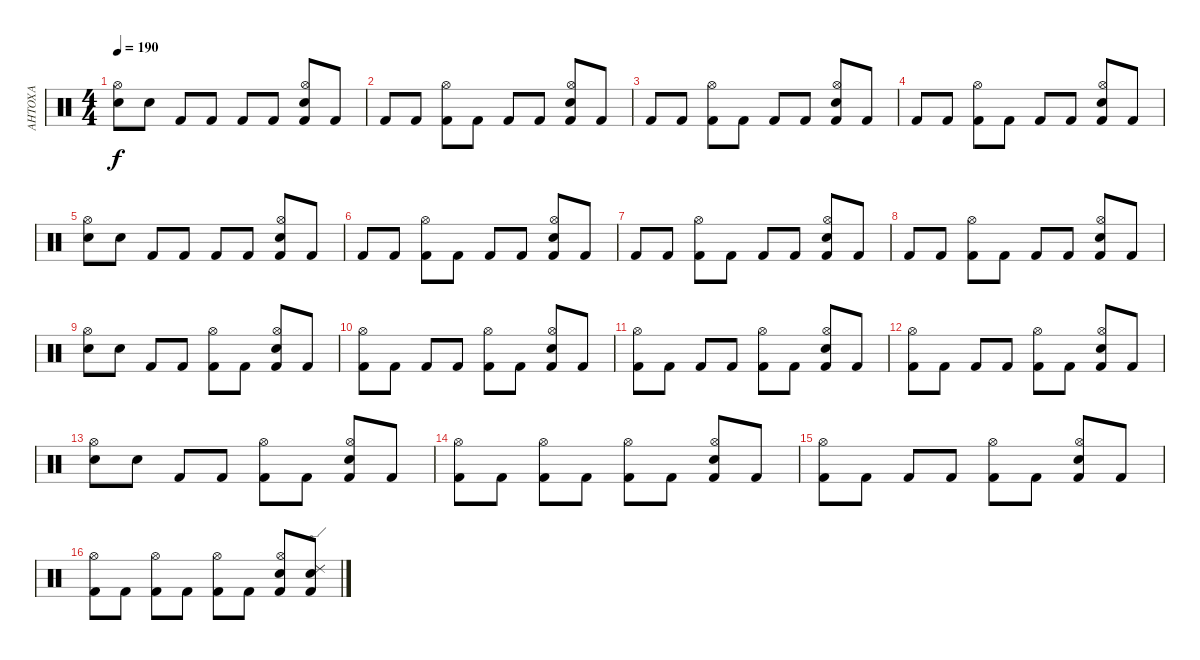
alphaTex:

\track ("АНТОХА" "АНТОХА") {instrument percussion}
\staff {score}
\articulation defaults
\ts (4 4)
\tempo 190
\clef neutral
\ks c
("Electric Snare (hit)" "Hi-Hat (open)").8{dy f} "Electric Snare (hit)".8 "Kick (hit) 2".8 "Kick (hit) 2".8 "Kick (hit) 2".8 "Kick (hit) 2".8 ("Kick (hit) 2" "Electric Snare (hit)" "Hi-Hat (open)").8 "Kick (hit) 2".8 |
"Kick (hit) 2".8 "Kick (hit) 2".8 ("Kick (hit) 2" "Hi-Hat (open)").8 "Kick (hit) 2".8 "Kick (hit) 2".8 "Kick (hit) 2".8 ("Kick (hit) 2" "Electric Snare (hit)" "Hi-Hat (open)").8 "Kick (hit) 2".8 |
"Kick (hit) 2".8 "Kick (hit) 2".8 ("Kick (hit) 2" "Hi-Hat (open)").8 "Kick (hit) 2".8 "Kick (hit) 2".8 "Kick (hit) 2".8 ("Kick (hit) 2" "Electric Snare (hit)" "Hi-Hat (open)").8 "Kick (hit) 2".8 |
"Kick (hit) 2".8 "Kick (hit) 2".8 ("Kick (hit) 2" "Hi-Hat (open)").8 "Kick (hit) 2".8 "Kick (hit) 2".8 "Kick (hit) 2".8 ("Kick (hit) 2" "Electric Snare (hit)" "Hi-Hat (open)").8 "Kick (hit) 2".8 |
("Electric Snare (hit)" "Hi-Hat (open)").8 "Electric Snare (hit)".8 "Kick (hit) 2".8 "Kick (hit) 2".8 "Kick (hit) 2".8 "Kick (hit) 2".8 ("Kick (hit) 2" "Electric Snare (hit)" "Hi-Hat (open)").8 "Kick (hit) 2".8 |
"Kick (hit) 2".8 "Kick (hit) 2".8 ("Kick (hit) 2" "Hi-Hat (open)").8 "Kick (hit) 2".8 "Kick (hit) 2".8 "Kick (hit) 2".8 ("Kick (hit) 2" "Electric Snare (hit)" "Hi-Hat (open)").8 "Kick (hit) 2".8 |
"Kick (hit) 2".8 "Kick (hit) 2".8 ("Kick (hit) 2" "Hi-Hat (open)").8 "Kick (hit) 2".8 "Kick (hit) 2".8 "Kick (hit) 2".8 ("Kick (hit) 2" "Electric Snare (hit)" "Hi-Hat (open)").8 "Kick (hit) 2".8 |
"Kick (hit) 2".8 "Kick (hit) 2".8 ("Kick (hit) 2" "Hi-Hat (open)").8 "Kick (hit) 2".8 "Kick (hit) 2".8 "Kick (hit) 2".8 ("Kick (hit) 2" "Electric Snare (hit)" "Hi-Hat (open)").8 "Kick (hit) 2".8 |
("Electric Snare (hit)" "Hi-Hat (open)").8 "Electric Snare (hit)".8 "Kick (hit) 2".8 "Kick (hit) 2".8 ("Kick (hit) 2" "Hi-Hat (open)").8 "Kick (hit) 2".8 ("Kick (hit) 2" "Electric Snare (hit)" "Hi-Hat (open)").8 "Kick (hit) 2".8 |
("Kick (hit) 2" "Hi-Hat (open)").8 "Kick (hit) 2".8 "Kick (hit) 2".8 "Kick (hit) 2".8 ("Kick (hit) 2" "Hi-Hat (open)").8 "Kick (hit) 2".8 ("Kick (hit) 2" "Electric Snare (hit)" "Hi-Hat (open)").8 "Kick (hit) 2".8 |
("Kick (hit) 2" "Hi-Hat (open)").8 "Kick (hit) 2".8 "Kick (hit) 2".8 "Kick (hit) 2".8 ("Kick (hit) 2" "Hi-Hat (open)").8 "Kick (hit) 2".8 ("Kick (hit) 2" "Electric Snare (hit)" "Hi-Hat (open)").8 "Kick (hit) 2".8 |
("Kick (hit) 2" "Hi-Hat (open)").8 "Kick (hit) 2".8 "Kick (hit) 2".8 "Kick (hit) 2".8 ("Kick (hit) 2" "Hi-Hat (open)").8 "Kick (hit) 2".8 ("Kick (hit) 2" "Electric Snare (hit)" "Hi-Hat (open)").8 "Kick (hit) 2".8 |
("Electric Snare (hit)" "Hi-Hat (open)").8 "Electric Snare (hit)".8 "Kick (hit) 2".8 "Kick (hit) 2".8 ("Kick (hit) 2" "Hi-Hat (open)").8 "Kick (hit) 2".8 ("Kick (hit) 2" "Electric Snare (hit)" "Hi-Hat (open)").8 "Kick (hit) 2".8 |
("Kick (hit) 2" "Hi-Hat (open)").8 "Kick (hit) 2".8 ("Kick (hit) 2" "Hi-Hat (open)").8 "Kick (hit) 2".8 ("Kick (hit) 2" "Hi-Hat (open)").8 "Kick (hit) 2".8 ("Kick (hit) 2" "Electric Snare (hit)" "Hi-Hat (open)").8 "Kick (hit) 2".8 |
("Kick (hit) 2" "Hi-Hat (open)").8 "Kick (hit) 2".8 "Kick (hit) 2".8 "Kick (hit) 2".8 ("Kick (hit) 2" "Hi-Hat (open)").8 "Kick (hit) 2".8 ("Kick (hit) 2" "Electric Snare (hit)" "Hi-Hat (open)").8 "Kick (hit) 2".8 |
("Kick (hit) 2" "Hi-Hat (open)").8 "Kick (hit) 2".8 ("Kick (hit) 2" "Hi-Hat (open)").8 "Kick (hit) 2".8 ("Kick (hit) 2" "Hi-Hat (open)").8 "Kick (hit) 2".8 ("Kick (hit) 2" "Electric Snare (hit)" "Hi-Hat (open)").8 ("Kick (hit) 2" "Electric Snare (hit)" "Ride (edge) 2").8
